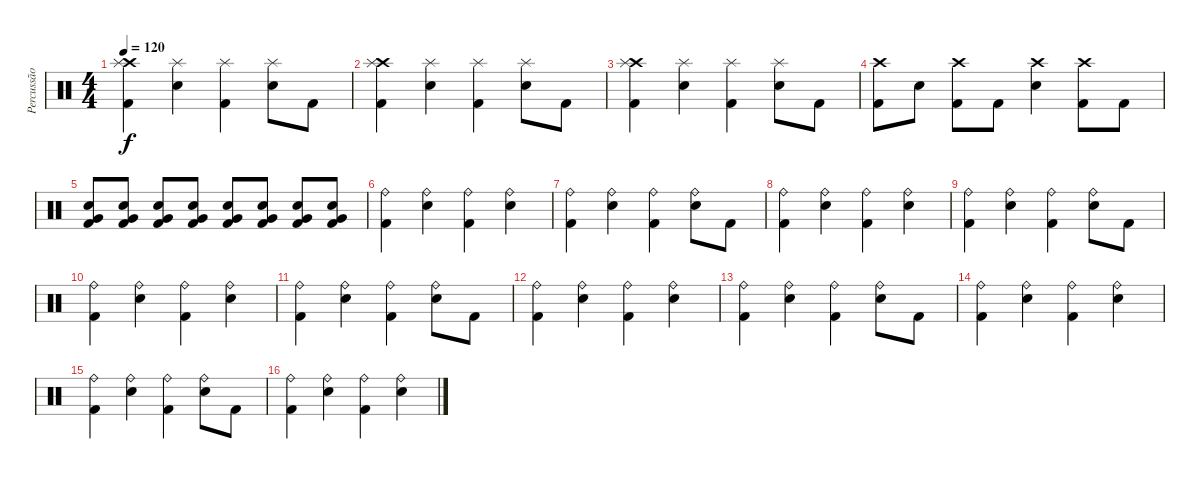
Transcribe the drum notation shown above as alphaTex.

\track ("Percussão" "Percussão") {instrument percussion}
\staff {score}
\articulation defaults
\ts (4 4)
\tempo 120
\clef neutral
\ks c
("Crash high (hit)" "Splash (hit)" "Kick (hit) 2").4{dy f} ("Splash (hit)" "Snare (hit) 2").4 ("Splash (hit)" "Kick (hit) 2").4 ("Splash (hit)" "Snare (hit) 2").8 "Kick (hit) 2".8 |
("Crash high (hit)" "Splash (hit)" "Kick (hit) 2").4 ("Splash (hit)" "Snare (hit) 2").4 ("Splash (hit)" "Kick (hit) 2").4 ("Splash (hit)" "Snare (hit) 2").8 "Kick (hit) 2".8 |
("Crash high (hit)" "Splash (hit)" "Kick (hit) 2").4 ("Splash (hit)" "Snare (hit) 2").4 ("Splash (hit)" "Kick (hit) 2").4 ("Splash (hit)" "Snare (hit) 2").8 "Kick (hit) 2".8 |
("Crash high (hit)" "Kick (hit) 2").8 "Snare (hit) 2".8 ("Crash high (hit)" "Kick (hit) 2").8 "Kick (hit) 2".8 ("Crash high (hit)" "Snare (hit) 2").4 ("Crash high (hit)" "Kick (hit) 2").8 "Kick (hit) 2".8 |
("Snare (hit) 2" "Very Low Tom (hit)" "Kick (hit) 2").8 ("Snare (hit) 2" "Very Low Tom (hit)" "Kick (hit) 2").8 ("Snare (hit) 2" "Very Low Tom (hit)" "Kick (hit) 2").8 ("Snare (hit) 2" "Very Low Tom (hit)" "Kick (hit) 2").8 ("Snare (hit) 2" "Very Low Tom (hit)" "Kick (hit) 2").8 ("Snare (hit) 2" "Very Low Tom (hit)" "Kick (hit) 2").8 ("Snare (hit) 2" "Very Low Tom (hit)" "Kick (hit) 2").8 ("Snare (hit) 2" "Very Low Tom (hit)" "Kick (hit) 2").8 |
("Ride (bell)" "Kick (hit) 2").4 ("Ride (bell)" "Snare (hit) 2").4 ("Ride (bell)" "Kick (hit) 2").4 ("Ride (bell)" "Snare (hit) 2").4 |
("Ride (bell)" "Kick (hit) 2").4 ("Ride (bell)" "Snare (hit) 2").4 ("Ride (bell)" "Kick (hit) 2").4 ("Ride (bell)" "Snare (hit) 2").8 "Kick (hit) 2".8 |
("Ride (bell)" "Kick (hit) 2").4 ("Ride (bell)" "Snare (hit) 2").4 ("Ride (bell)" "Kick (hit) 2").4 ("Ride (bell)" "Snare (hit) 2").4 |
("Ride (bell)" "Kick (hit) 2").4 ("Ride (bell)" "Snare (hit) 2").4 ("Ride (bell)" "Kick (hit) 2").4 ("Ride (bell)" "Snare (hit) 2").8 "Kick (hit) 2".8 |
("Ride (bell)" "Kick (hit) 2").4 ("Ride (bell)" "Snare (hit) 2").4 ("Ride (bell)" "Kick (hit) 2").4 ("Ride (bell)" "Snare (hit) 2").4 |
("Ride (bell)" "Kick (hit) 2").4 ("Ride (bell)" "Snare (hit) 2").4 ("Ride (bell)" "Kick (hit) 2").4 ("Ride (bell)" "Snare (hit) 2").8 "Kick (hit) 2".8 |
("Ride (bell)" "Kick (hit) 2").4 ("Ride (bell)" "Snare (hit) 2").4 ("Ride (bell)" "Kick (hit) 2").4 ("Ride (bell)" "Snare (hit) 2").4 |
("Ride (bell)" "Kick (hit) 2").4 ("Ride (bell)" "Snare (hit) 2").4 ("Ride (bell)" "Kick (hit) 2").4 ("Ride (bell)" "Snare (hit) 2").8 "Kick (hit) 2".8 |
("Ride (bell)" "Kick (hit) 2").4 ("Ride (bell)" "Snare (hit) 2").4 ("Ride (bell)" "Kick (hit) 2").4 ("Ride (bell)" "Snare (hit) 2").4 |
("Ride (bell)" "Kick (hit) 2").4 ("Ride (bell)" "Snare (hit) 2").4 ("Ride (bell)" "Kick (hit) 2").4 ("Ride (bell)" "Snare (hit) 2").8 "Kick (hit) 2".8 |
("Ride (bell)" "Kick (hit) 2").4 ("Ride (bell)" "Snare (hit) 2").4 ("Ride (bell)" "Kick (hit) 2").4 ("Ride (bell)" "Snare (hit) 2").4
